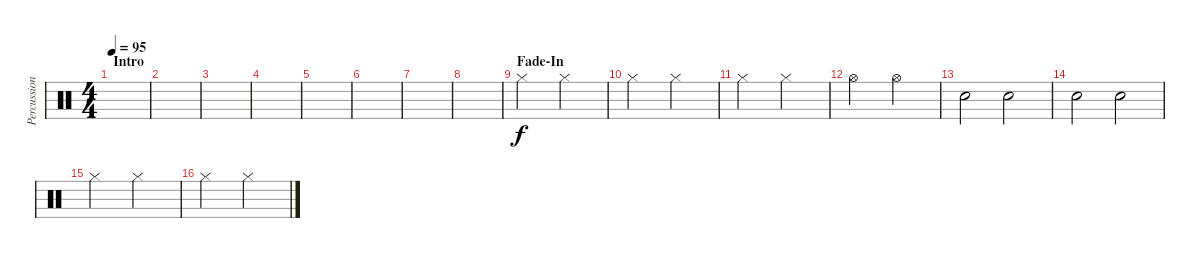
\track ("Percussion" "Percussion") {instrument percussion}
\staff {score}
\articulation defaults
\ts (4 4)
\section ("" "Intro")
\tempo 95
\clef neutral
\ks c
|
|
|
|
|
|
|
|
\section ("" "Fade-In")
"Hi-Hat (closed)".2 "Hi-Hat (closed)".2 |
"Hi-Hat (closed)".2 "Hi-Hat (closed)".2 |
"Hi-Hat (closed)".2 "Hi-Hat (closed)".2 |
"Hi-Hat (open)".2 "Hi-Hat (open)".2 |
"Electric Snare (hit)".2 "Electric Snare (hit)".2 |
"Electric Snare (hit)".2 "Electric Snare (hit)".2 |
"Hi-Hat (closed)".2 "Hi-Hat (closed)".2 |
"Hi-Hat (closed)".2 "Hi-Hat (closed)".2
